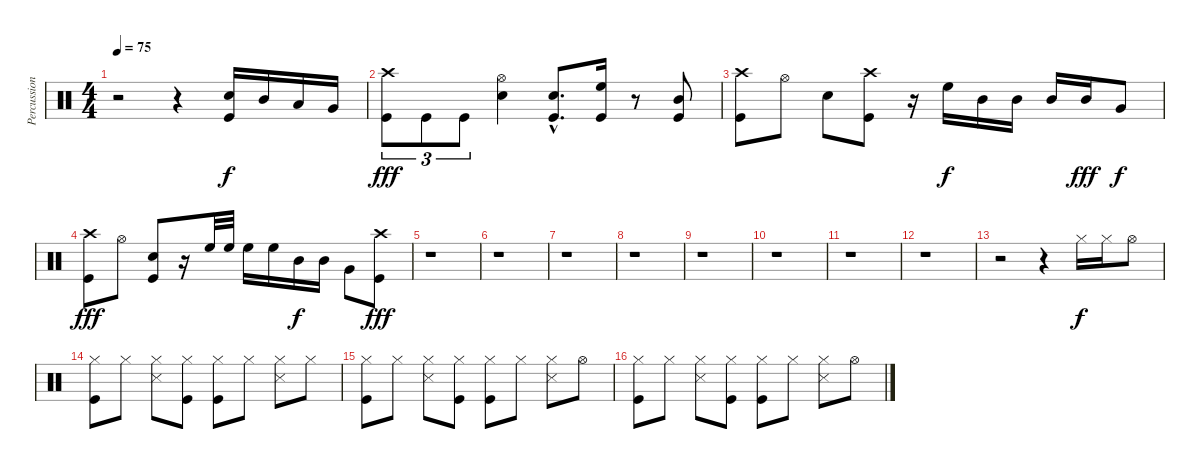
\track ("Percussion" "Percussion") {instrument percussion}
\staff {score}
\articulation defaults
\ts (4 4)
\tempo 75
\clef neutral
\ks c
r.2{dy f} r.4 ("Snare (hit) 2" "Kick (hit)").16 "Mid Tom (hit)".16 "Low Tom (hit)".16 "Very Low Tom (hit)".16 |
("Crash high (hit)" "Kick (hit)").8{tu (3 2) dy fff} "Kick (hit)".8{tu (3 2)} "Kick (hit)".8{tu (3 2)} ("Hi-Hat (open)" "Snare (hit) 2").4 ("Snare (hit) 2"{hac} "Kick (hit)"{hac}).8{d} ("High Floor Tom (hit)" "Kick (hit)").16 r.8 ("Mid Tom (hit)" "Kick (hit)").8 |
("Crash high (hit)" "Kick (hit)").8 "Hi-Hat (open)".8 "Snare (hit) 2".8 ("Crash high (hit)" "Kick (hit)").8 r.16 "High Floor Tom (hit)".16{dy f} "Mid Tom (hit)".16 "Mid Tom (hit)".16 "Mid Tom (hit)".16 "Mid Tom (hit)".16{dy fff} "Very Low Tom (hit)".8{dy f} |
("Crash high (hit)" "Kick (hit)").8{dy fff} "Hi-Hat (open)".8 ("Snare (hit) 2" "Kick (hit)").8 r.16 "High Floor Tom (hit)".32 "High Floor Tom (hit)".32 "High Floor Tom (hit)".16 "High Floor Tom (hit)".16 "Mid Tom (hit)".16{dy f} "Mid Tom (hit)".16 "Very Low Tom (hit)".8 ("Crash high (hit)" "Kick (hit)").8{dy fff} |
r.1 |
r.1 |
r.1 |
r.1 |
r.1 |
r.1 |
r.1 |
r.1 |
r.2 r.4 "Hi-Hat (closed)".16{dy f} "Hi-Hat (closed)".16 "Hi-Hat (open)".8 |
("Hi-Hat (closed)" "Kick (hit)").8 "Hi-Hat (closed)".8 ("Hi-Hat (closed)" "Snare (side stick) 3").8 ("Hi-Hat (closed)" "Kick (hit)").8 ("Hi-Hat (closed)" "Kick (hit)").8 "Hi-Hat (closed)".8 ("Hi-Hat (closed)" "Snare (side stick) 3").8 "Hi-Hat (closed)".8 |
("Hi-Hat (closed)" "Kick (hit)").8 "Hi-Hat (closed)".8 ("Hi-Hat (closed)" "Snare (side stick) 3").8 ("Hi-Hat (closed)" "Kick (hit)").8 ("Hi-Hat (closed)" "Kick (hit)").8 "Hi-Hat (closed)".8 ("Hi-Hat (closed)" "Snare (side stick) 3").8 "Hi-Hat (open)".8 |
("Hi-Hat (closed)" "Kick (hit)").8 "Hi-Hat (closed)".8 ("Hi-Hat (closed)" "Snare (side stick) 3").8 ("Hi-Hat (closed)" "Kick (hit)").8 ("Hi-Hat (closed)" "Kick (hit)").8 "Hi-Hat (closed)".8 ("Hi-Hat (closed)" "Snare (side stick) 3").8 "Hi-Hat (open)".8
